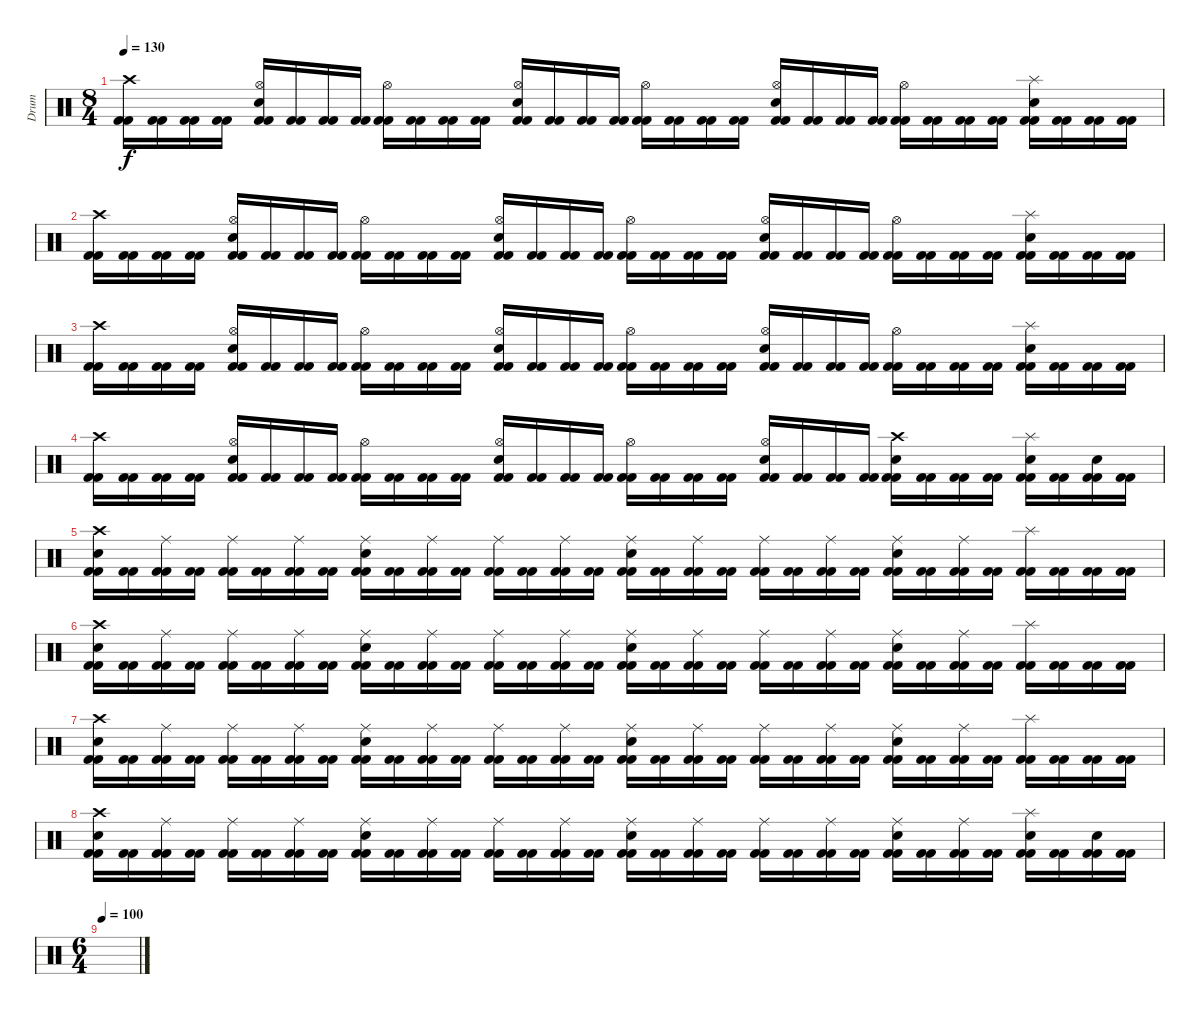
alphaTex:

\track ("Drum" "Drum") {instrument percussion}
\staff {score}
\articulation defaults
\ts (8 4)
\tempo 130
\clef neutral
\ks c
("Crash high (hit)" "Kick (hit) 2" "Kick (hit) 2").16{dy f} ("Kick (hit) 2" "Kick (hit) 2").16 ("Kick (hit) 2" "Kick (hit) 2").16 ("Kick (hit) 2" "Kick (hit) 2").16 ("Hi-Hat (open)" "Electric Snare (hit)" "Kick (hit) 2" "Kick (hit) 2").16 ("Kick (hit) 2" "Kick (hit) 2").16 ("Kick (hit) 2" "Kick (hit) 2").16 ("Kick (hit) 2" "Kick (hit) 2").16 ("Hi-Hat (open)" "Kick (hit) 2" "Kick (hit) 2").16 ("Kick (hit) 2" "Kick (hit) 2").16 ("Kick (hit) 2" "Kick (hit) 2").16 ("Kick (hit) 2" "Kick (hit) 2").16 ("Hi-Hat (open)" "Electric Snare (hit)" "Kick (hit) 2" "Kick (hit) 2").16 ("Kick (hit) 2" "Kick (hit) 2").16 ("Kick (hit) 2" "Kick (hit) 2").16 ("Kick (hit) 2" "Kick (hit) 2").16 ("Hi-Hat (open)" "Kick (hit) 2" "Kick (hit) 2").16 ("Kick (hit) 2" "Kick (hit) 2").16 ("Kick (hit) 2" "Kick (hit) 2").16 ("Kick (hit) 2" "Kick (hit) 2").16 ("Hi-Hat (open)" "Electric Snare (hit)" "Kick (hit) 2" "Kick (hit) 2").16 ("Kick (hit) 2" "Kick (hit) 2").16 ("Kick (hit) 2" "Kick (hit) 2").16 ("Kick (hit) 2" "Kick (hit) 2").16 ("Hi-Hat (open)" "Kick (hit) 2" "Kick (hit) 2").16 ("Kick (hit) 2" "Kick (hit) 2").16 ("Kick (hit) 2" "Kick (hit) 2").16 ("Kick (hit) 2" "Kick (hit) 2").16 ("Splash (hit)" "Electric Snare (hit)" "Kick (hit) 2" "Kick (hit) 2").16 ("Kick (hit) 2" "Kick (hit) 2").16 ("Kick (hit) 2" "Kick (hit) 2").16 ("Kick (hit) 2" "Kick (hit) 2").16 |
("Crash high (hit)" "Kick (hit) 2" "Kick (hit) 2").16 ("Kick (hit) 2" "Kick (hit) 2").16 ("Kick (hit) 2" "Kick (hit) 2").16 ("Kick (hit) 2" "Kick (hit) 2").16 ("Hi-Hat (open)" "Electric Snare (hit)" "Kick (hit) 2" "Kick (hit) 2").16 ("Kick (hit) 2" "Kick (hit) 2").16 ("Kick (hit) 2" "Kick (hit) 2").16 ("Kick (hit) 2" "Kick (hit) 2").16 ("Hi-Hat (open)" "Kick (hit) 2" "Kick (hit) 2").16 ("Kick (hit) 2" "Kick (hit) 2").16 ("Kick (hit) 2" "Kick (hit) 2").16 ("Kick (hit) 2" "Kick (hit) 2").16 ("Hi-Hat (open)" "Electric Snare (hit)" "Kick (hit) 2" "Kick (hit) 2").16 ("Kick (hit) 2" "Kick (hit) 2").16 ("Kick (hit) 2" "Kick (hit) 2").16 ("Kick (hit) 2" "Kick (hit) 2").16 ("Hi-Hat (open)" "Kick (hit) 2" "Kick (hit) 2").16 ("Kick (hit) 2" "Kick (hit) 2").16 ("Kick (hit) 2" "Kick (hit) 2").16 ("Kick (hit) 2" "Kick (hit) 2").16 ("Hi-Hat (open)" "Electric Snare (hit)" "Kick (hit) 2" "Kick (hit) 2").16 ("Kick (hit) 2" "Kick (hit) 2").16 ("Kick (hit) 2" "Kick (hit) 2").16 ("Kick (hit) 2" "Kick (hit) 2").16 ("Hi-Hat (open)" "Kick (hit) 2" "Kick (hit) 2").16 ("Kick (hit) 2" "Kick (hit) 2").16 ("Kick (hit) 2" "Kick (hit) 2").16 ("Kick (hit) 2" "Kick (hit) 2").16 ("Splash (hit)" "Electric Snare (hit)" "Kick (hit) 2" "Kick (hit) 2").16 ("Kick (hit) 2" "Kick (hit) 2").16 ("Kick (hit) 2" "Kick (hit) 2").16 ("Kick (hit) 2" "Kick (hit) 2").16 |
("Crash high (hit)" "Kick (hit) 2" "Kick (hit) 2").16 ("Kick (hit) 2" "Kick (hit) 2").16 ("Kick (hit) 2" "Kick (hit) 2").16 ("Kick (hit) 2" "Kick (hit) 2").16 ("Hi-Hat (open)" "Electric Snare (hit)" "Kick (hit) 2" "Kick (hit) 2").16 ("Kick (hit) 2" "Kick (hit) 2").16 ("Kick (hit) 2" "Kick (hit) 2").16 ("Kick (hit) 2" "Kick (hit) 2").16 ("Hi-Hat (open)" "Kick (hit) 2" "Kick (hit) 2").16 ("Kick (hit) 2" "Kick (hit) 2").16 ("Kick (hit) 2" "Kick (hit) 2").16 ("Kick (hit) 2" "Kick (hit) 2").16 ("Hi-Hat (open)" "Electric Snare (hit)" "Kick (hit) 2" "Kick (hit) 2").16 ("Kick (hit) 2" "Kick (hit) 2").16 ("Kick (hit) 2" "Kick (hit) 2").16 ("Kick (hit) 2" "Kick (hit) 2").16 ("Hi-Hat (open)" "Kick (hit) 2" "Kick (hit) 2").16 ("Kick (hit) 2" "Kick (hit) 2").16 ("Kick (hit) 2" "Kick (hit) 2").16 ("Kick (hit) 2" "Kick (hit) 2").16 ("Hi-Hat (open)" "Electric Snare (hit)" "Kick (hit) 2" "Kick (hit) 2").16 ("Kick (hit) 2" "Kick (hit) 2").16 ("Kick (hit) 2" "Kick (hit) 2").16 ("Kick (hit) 2" "Kick (hit) 2").16 ("Hi-Hat (open)" "Kick (hit) 2" "Kick (hit) 2").16 ("Kick (hit) 2" "Kick (hit) 2").16 ("Kick (hit) 2" "Kick (hit) 2").16 ("Kick (hit) 2" "Kick (hit) 2").16 ("Splash (hit)" "Electric Snare (hit)" "Kick (hit) 2" "Kick (hit) 2").16 ("Kick (hit) 2" "Kick (hit) 2").16 ("Kick (hit) 2" "Kick (hit) 2").16 ("Kick (hit) 2" "Kick (hit) 2").16 |
("Crash high (hit)" "Kick (hit) 2" "Kick (hit) 2").16 ("Kick (hit) 2" "Kick (hit) 2").16 ("Kick (hit) 2" "Kick (hit) 2").16 ("Kick (hit) 2" "Kick (hit) 2").16 ("Hi-Hat (open)" "Electric Snare (hit)" "Kick (hit) 2" "Kick (hit) 2").16 ("Kick (hit) 2" "Kick (hit) 2").16 ("Kick (hit) 2" "Kick (hit) 2").16 ("Kick (hit) 2" "Kick (hit) 2").16 ("Hi-Hat (open)" "Kick (hit) 2" "Kick (hit) 2").16 ("Kick (hit) 2" "Kick (hit) 2").16 ("Kick (hit) 2" "Kick (hit) 2").16 ("Kick (hit) 2" "Kick (hit) 2").16 ("Hi-Hat (open)" "Electric Snare (hit)" "Kick (hit) 2" "Kick (hit) 2").16 ("Kick (hit) 2" "Kick (hit) 2").16 ("Kick (hit) 2" "Kick (hit) 2").16 ("Kick (hit) 2" "Kick (hit) 2").16 ("Hi-Hat (open)" "Kick (hit) 2" "Kick (hit) 2").16 ("Kick (hit) 2" "Kick (hit) 2").16 ("Kick (hit) 2" "Kick (hit) 2").16 ("Kick (hit) 2" "Kick (hit) 2").16 ("Hi-Hat (open)" "Electric Snare (hit)" "Kick (hit) 2" "Kick (hit) 2").16 ("Kick (hit) 2" "Kick (hit) 2").16 ("Kick (hit) 2" "Kick (hit) 2").16 ("Kick (hit) 2" "Kick (hit) 2").16 ("Crash high (hit)" "Electric Snare (hit)" "Kick (hit) 2" "Kick (hit) 2").16 ("Kick (hit) 2" "Kick (hit) 2").16 ("Kick (hit) 2" "Kick (hit) 2").16 ("Kick (hit) 2" "Kick (hit) 2").16 ("Splash (hit)" "Electric Snare (hit)" "Kick (hit) 2" "Kick (hit) 2").16 ("Kick (hit) 2" "Kick (hit) 2").16 ("Electric Snare (hit)" "Kick (hit) 2" "Kick (hit) 2").16 ("Kick (hit) 2" "Kick (hit) 2").16 |
("Crash high (hit)" "Electric Snare (hit)" "Kick (hit) 2" "Kick (hit) 2").16 ("Kick (hit) 2" "Kick (hit) 2").16 ("Ride (middle)" "Kick (hit) 2" "Kick (hit) 2").16 ("Kick (hit) 2" "Kick (hit) 2").16 ("Ride (middle)" "Kick (hit) 2" "Kick (hit) 2").16 ("Kick (hit) 2" "Kick (hit) 2").16 ("Ride (middle)" "Kick (hit) 2" "Kick (hit) 2").16 ("Kick (hit) 2" "Kick (hit) 2").16 ("Ride (middle)" "Electric Snare (hit)" "Kick (hit) 2" "Kick (hit) 2").16 ("Kick (hit) 2" "Kick (hit) 2").16 ("Ride (middle)" "Kick (hit) 2" "Kick (hit) 2").16 ("Kick (hit) 2" "Kick (hit) 2").16 ("Ride (middle)" "Kick (hit) 2" "Kick (hit) 2").16 ("Kick (hit) 2" "Kick (hit) 2").16 ("Ride (middle)" "Kick (hit) 2" "Kick (hit) 2").16 ("Kick (hit) 2" "Kick (hit) 2").16 ("Ride (middle)" "Electric Snare (hit)" "Kick (hit) 2" "Kick (hit) 2").16 ("Kick (hit) 2" "Kick (hit) 2").16 ("Ride (middle)" "Kick (hit) 2" "Kick (hit) 2").16 ("Kick (hit) 2" "Kick (hit) 2").16 ("Ride (middle)" "Kick (hit) 2" "Kick (hit) 2").16 ("Kick (hit) 2" "Kick (hit) 2").16 ("Ride (middle)" "Kick (hit) 2" "Kick (hit) 2").16 ("Kick (hit) 2" "Kick (hit) 2").16 ("Ride (middle)" "Electric Snare (hit)" "Kick (hit) 2" "Kick (hit) 2").16 ("Kick (hit) 2" "Kick (hit) 2").16 ("Ride (middle)" "Kick (hit) 2" "Kick (hit) 2").16 ("Kick (hit) 2" "Kick (hit) 2").16 ("Splash (hit)" "Kick (hit) 2" "Kick (hit) 2").16 ("Kick (hit) 2" "Kick (hit) 2").16 ("Kick (hit) 2" "Kick (hit) 2").16 ("Kick (hit) 2" "Kick (hit) 2").16 |
("Crash high (hit)" "Electric Snare (hit)" "Kick (hit) 2" "Kick (hit) 2").16 ("Kick (hit) 2" "Kick (hit) 2").16 ("Ride (middle)" "Kick (hit) 2" "Kick (hit) 2").16 ("Kick (hit) 2" "Kick (hit) 2").16 ("Ride (middle)" "Kick (hit) 2" "Kick (hit) 2").16 ("Kick (hit) 2" "Kick (hit) 2").16 ("Ride (middle)" "Kick (hit) 2" "Kick (hit) 2").16 ("Kick (hit) 2" "Kick (hit) 2").16 ("Ride (middle)" "Electric Snare (hit)" "Kick (hit) 2" "Kick (hit) 2").16 ("Kick (hit) 2" "Kick (hit) 2").16 ("Ride (middle)" "Kick (hit) 2" "Kick (hit) 2").16 ("Kick (hit) 2" "Kick (hit) 2").16 ("Ride (middle)" "Kick (hit) 2" "Kick (hit) 2").16 ("Kick (hit) 2" "Kick (hit) 2").16 ("Ride (middle)" "Kick (hit) 2" "Kick (hit) 2").16 ("Kick (hit) 2" "Kick (hit) 2").16 ("Ride (middle)" "Electric Snare (hit)" "Kick (hit) 2" "Kick (hit) 2").16 ("Kick (hit) 2" "Kick (hit) 2").16 ("Ride (middle)" "Kick (hit) 2" "Kick (hit) 2").16 ("Kick (hit) 2" "Kick (hit) 2").16 ("Ride (middle)" "Kick (hit) 2" "Kick (hit) 2").16 ("Kick (hit) 2" "Kick (hit) 2").16 ("Ride (middle)" "Kick (hit) 2" "Kick (hit) 2").16 ("Kick (hit) 2" "Kick (hit) 2").16 ("Ride (middle)" "Electric Snare (hit)" "Kick (hit) 2" "Kick (hit) 2").16 ("Kick (hit) 2" "Kick (hit) 2").16 ("Ride (middle)" "Kick (hit) 2" "Kick (hit) 2").16 ("Kick (hit) 2" "Kick (hit) 2").16 ("Splash (hit)" "Kick (hit) 2" "Kick (hit) 2").16 ("Kick (hit) 2" "Kick (hit) 2").16 ("Kick (hit) 2" "Kick (hit) 2").16 ("Kick (hit) 2" "Kick (hit) 2").16 |
("Crash high (hit)" "Electric Snare (hit)" "Kick (hit) 2" "Kick (hit) 2").16 ("Kick (hit) 2" "Kick (hit) 2").16 ("Ride (middle)" "Kick (hit) 2" "Kick (hit) 2").16 ("Kick (hit) 2" "Kick (hit) 2").16 ("Ride (middle)" "Kick (hit) 2" "Kick (hit) 2").16 ("Kick (hit) 2" "Kick (hit) 2").16 ("Ride (middle)" "Kick (hit) 2" "Kick (hit) 2").16 ("Kick (hit) 2" "Kick (hit) 2").16 ("Ride (middle)" "Electric Snare (hit)" "Kick (hit) 2" "Kick (hit) 2").16 ("Kick (hit) 2" "Kick (hit) 2").16 ("Ride (middle)" "Kick (hit) 2" "Kick (hit) 2").16 ("Kick (hit) 2" "Kick (hit) 2").16 ("Ride (middle)" "Kick (hit) 2" "Kick (hit) 2").16 ("Kick (hit) 2" "Kick (hit) 2").16 ("Ride (middle)" "Kick (hit) 2" "Kick (hit) 2").16 ("Kick (hit) 2" "Kick (hit) 2").16 ("Ride (middle)" "Electric Snare (hit)" "Kick (hit) 2" "Kick (hit) 2").16 ("Kick (hit) 2" "Kick (hit) 2").16 ("Ride (middle)" "Kick (hit) 2" "Kick (hit) 2").16 ("Kick (hit) 2" "Kick (hit) 2").16 ("Ride (middle)" "Kick (hit) 2" "Kick (hit) 2").16 ("Kick (hit) 2" "Kick (hit) 2").16 ("Ride (middle)" "Kick (hit) 2" "Kick (hit) 2").16 ("Kick (hit) 2" "Kick (hit) 2").16 ("Ride (middle)" "Electric Snare (hit)" "Kick (hit) 2" "Kick (hit) 2").16 ("Kick (hit) 2" "Kick (hit) 2").16 ("Ride (middle)" "Kick (hit) 2" "Kick (hit) 2").16 ("Kick (hit) 2" "Kick (hit) 2").16 ("Splash (hit)" "Kick (hit) 2" "Kick (hit) 2").16 ("Kick (hit) 2" "Kick (hit) 2").16 ("Kick (hit) 2" "Kick (hit) 2").16 ("Kick (hit) 2" "Kick (hit) 2").16 |
("Crash high (hit)" "Electric Snare (hit)" "Kick (hit) 2" "Kick (hit) 2").16 ("Kick (hit) 2" "Kick (hit) 2").16 ("Ride (middle)" "Kick (hit) 2" "Kick (hit) 2").16 ("Kick (hit) 2" "Kick (hit) 2").16 ("Ride (middle)" "Kick (hit) 2" "Kick (hit) 2").16 ("Kick (hit) 2" "Kick (hit) 2").16 ("Ride (middle)" "Kick (hit) 2" "Kick (hit) 2").16 ("Kick (hit) 2" "Kick (hit) 2").16 ("Ride (middle)" "Electric Snare (hit)" "Kick (hit) 2" "Kick (hit) 2").16 ("Kick (hit) 2" "Kick (hit) 2").16 ("Ride (middle)" "Kick (hit) 2" "Kick (hit) 2").16 ("Kick (hit) 2" "Kick (hit) 2").16 ("Ride (middle)" "Kick (hit) 2" "Kick (hit) 2").16 ("Kick (hit) 2" "Kick (hit) 2").16 ("Ride (middle)" "Kick (hit) 2" "Kick (hit) 2").16 ("Kick (hit) 2" "Kick (hit) 2").16 ("Ride (middle)" "Electric Snare (hit)" "Kick (hit) 2" "Kick (hit) 2").16 ("Kick (hit) 2" "Kick (hit) 2").16 ("Ride (middle)" "Kick (hit) 2" "Kick (hit) 2").16 ("Kick (hit) 2" "Kick (hit) 2").16 ("Ride (middle)" "Kick (hit) 2" "Kick (hit) 2").16 ("Kick (hit) 2" "Kick (hit) 2").16 ("Ride (middle)" "Kick (hit) 2" "Kick (hit) 2").16 ("Kick (hit) 2" "Kick (hit) 2").16 ("Ride (middle)" "Electric Snare (hit)" "Kick (hit) 2" "Kick (hit) 2").16 ("Kick (hit) 2" "Kick (hit) 2").16 ("Ride (middle)" "Kick (hit) 2" "Kick (hit) 2").16 ("Kick (hit) 2" "Kick (hit) 2").16 ("Splash (hit)" "Electric Snare (hit)" "Kick (hit) 2" "Kick (hit) 2").16 ("Kick (hit) 2" "Kick (hit) 2").16 ("Electric Snare (hit)" "Kick (hit) 2" "Kick (hit) 2").16 ("Kick (hit) 2" "Kick (hit) 2").16 |
\ts (6 4)
\tempo 100
